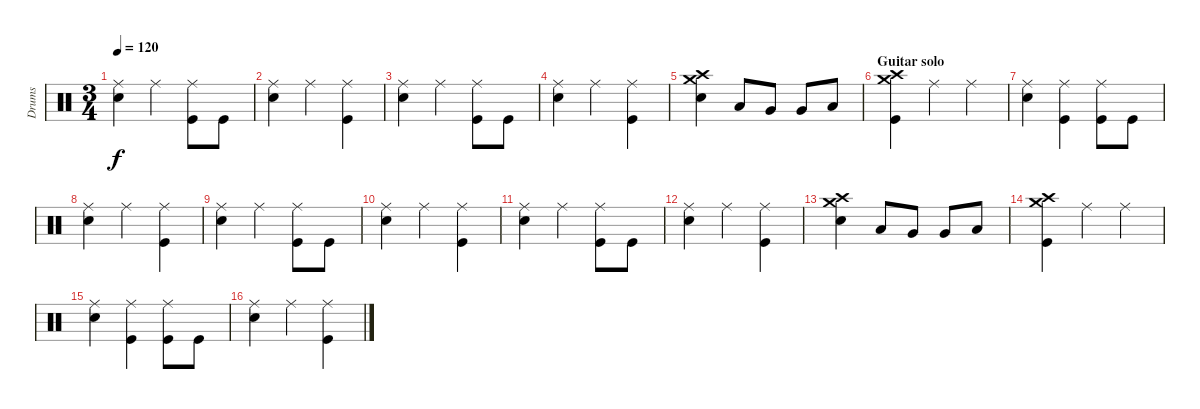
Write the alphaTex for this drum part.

\track ("Drums" "Drums") {instrument percussion}
\staff {score}
\articulation defaults
\ts (3 4)
\tempo 120
\clef neutral
\ks c
("Ride (middle)" "Snare (hit) 2").4{dy f} "Ride (middle)".4 ("Ride (middle)" "Kick (hit)").8 "Kick (hit)".8 |
("Ride (middle)" "Snare (hit) 2").4 "Ride (middle)".4 ("Ride (middle)" "Kick (hit)").4 |
("Ride (middle)" "Snare (hit) 2").4 "Ride (middle)".4 ("Ride (middle)" "Kick (hit)").8 "Kick (hit)".8 |
("Ride (middle)" "Snare (hit) 2").4 "Ride (middle)".4 ("Ride (middle)" "Kick (hit)").4 |
("Crash medium (hit)" "Crash high (hit)" "Snare (hit) 2").4 "Low Tom (hit)".8 "Very Low Tom (hit)".8 "Very Low Tom (hit)".8 "Low Floor Tom (hit)".8 |
\section ("" "Guitar solo")
("Crash medium (hit)" "Crash high (hit)" "Kick (hit)").4 "Ride (middle)".4 "Ride (middle)".4 |
("Ride (middle)" "Snare (hit) 2").4 ("Ride (middle)" "Kick (hit)").4 ("Ride (middle)" "Kick (hit)").8 "Kick (hit)".8 |
("Ride (middle)" "Snare (hit) 2").4 "Ride (middle)".4 ("Ride (middle)" "Kick (hit)").4 |
("Ride (middle)" "Snare (hit) 2").4 "Ride (middle)".4 ("Ride (middle)" "Kick (hit)").8 "Kick (hit)".8 |
("Ride (middle)" "Snare (hit) 2").4 "Ride (middle)".4 ("Ride (middle)" "Kick (hit)").4 |
("Ride (middle)" "Snare (hit) 2").4 "Ride (middle)".4 ("Ride (middle)" "Kick (hit)").8 "Kick (hit)".8 |
("Ride (middle)" "Snare (hit) 2").4 "Ride (middle)".4 ("Ride (middle)" "Kick (hit)").4 |
("Crash medium (hit)" "Crash high (hit)" "Snare (hit) 2").4 "Low Tom (hit)".8 "Very Low Tom (hit)".8 "Very Low Tom (hit)".8 "Low Floor Tom (hit)".8 |
("Crash medium (hit)" "Crash high (hit)" "Kick (hit)").4 "Ride (middle)".4 "Ride (middle)".4 |
("Ride (middle)" "Snare (hit) 2").4 ("Ride (middle)" "Kick (hit)").4 ("Ride (middle)" "Kick (hit)").8 "Kick (hit)".8 |
("Ride (middle)" "Snare (hit) 2").4 "Ride (middle)".4 ("Ride (middle)" "Kick (hit)").4
